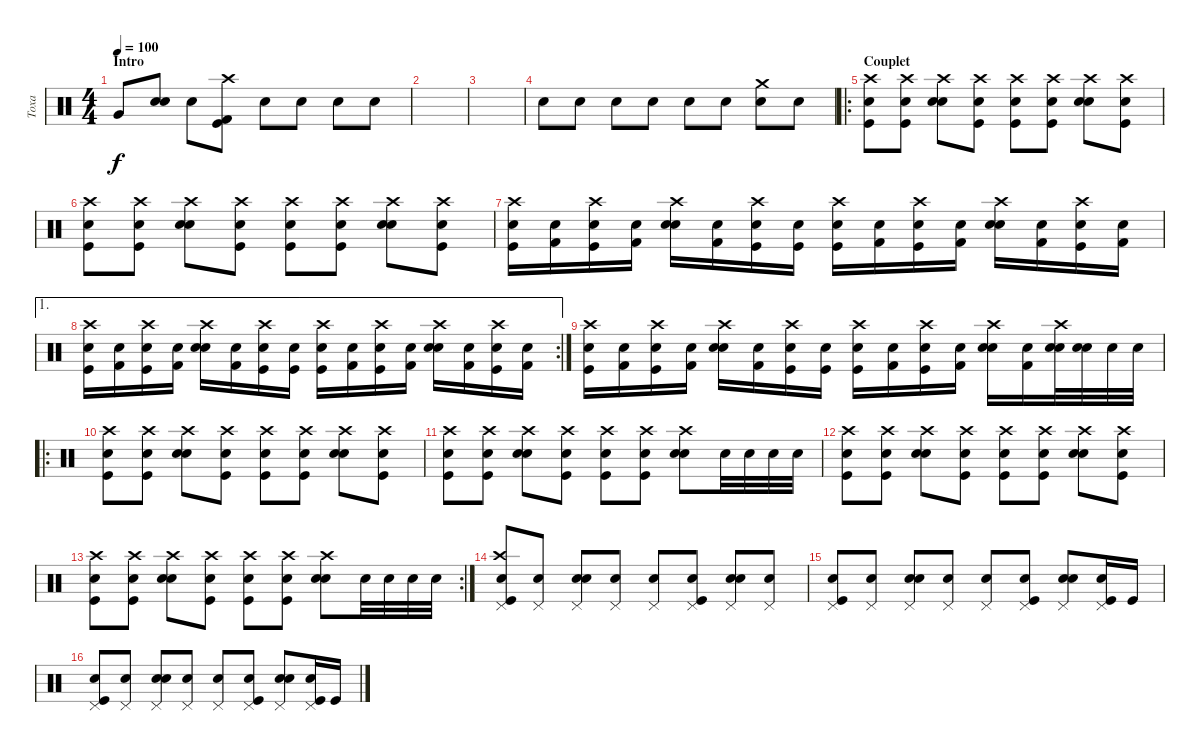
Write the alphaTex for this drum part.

\track ("Toxa" "Toxa") {instrument percussion}
\staff {score}
\articulation defaults
\ts (4 4)
\section ("" "Intro")
\tempo 100
\clef neutral
\ks c "Very Low Tom (hit)".8{dy f}
("Snare (hit) 2" "Electric Snare (hit)").8 "Snare (hit)"{x}.8 ("Kick (hit)" "Kick (hit) 2" "Crash high (hit)").8 "Snare (hit)"{x}.8 "Snare (hit)"{x}.8 "Snare (hit)"{x}.8 "Snare (hit)"{x}.8 |
|
|
"Snare (hit)"{x}.8 "Snare (hit)"{x}.8 "Snare (hit)"{x}.8 "Snare (hit)"{x}.8 "Snare (hit)"{x}.8 "Snare (hit)"{x}.8 ("Crash medium (hit)" "Snare (hit)"{x}).8 "Snare (hit)"{x}.8 |
\ro
\section ("" "Couplet ")
("Crash high (hit)" "Kick (hit)" "Snare (hit)"{x}).8 ("Crash high (hit)" "Kick (hit)" "Snare (hit)"{x}).8 ("Crash high (hit)" "Snare (hit) 2" "Snare (hit)"{x}).8 ("Crash high (hit)" "Kick (hit)" "Snare (hit)"{x}).8 ("Crash high (hit)" "Kick (hit)" "Snare (hit)"{x}).8 ("Crash high (hit)" "Kick (hit)" "Snare (hit)"{x}).8 ("Crash high (hit)" "Snare (hit) 2" "Snare (hit)"{x}).8 ("Crash high (hit)" "Kick (hit)" "Snare (hit)"{x}).8 |
("Crash high (hit)" "Kick (hit)" "Snare (hit)"{x}).8 ("Crash high (hit)" "Kick (hit)" "Snare (hit)"{x}).8 ("Crash high (hit)" "Snare (hit) 2" "Snare (hit)"{x}).8 ("Crash high (hit)" "Kick (hit)" "Snare (hit)"{x}).8 ("Crash high (hit)" "Kick (hit)" "Snare (hit)"{x}).8 ("Crash high (hit)" "Kick (hit)" "Snare (hit)"{x}).8 ("Crash high (hit)" "Snare (hit) 2" "Snare (hit)"{x}).8 ("Crash high (hit)" "Kick (hit)" "Snare (hit)"{x}).8 |
("Crash high (hit)" "Kick (hit)" "Snare (hit)"{x}).16 ("Kick (hit) 2" "Snare (hit)"{x}).16 ("Crash high (hit)" "Kick (hit)" "Snare (hit)"{x}).16 ("Kick (hit) 2" "Snare (hit)"{x}).16 ("Crash high (hit)" "Snare (hit) 2" "Snare (hit)"{x}).16 ("Kick (hit) 2" "Snare (hit)"{x}).16 ("Crash high (hit)" "Kick (hit)" "Snare (hit)"{x}).16 ("Kick (hit)" "Snare (hit)"{x}).16 ("Crash high (hit)" "Kick (hit)" "Snare (hit)"{x}).16 ("Kick (hit) 2" "Snare (hit)"{x}).16 ("Crash high (hit)" "Kick (hit)" "Snare (hit)"{x}).16 ("Kick (hit) 2" "Snare (hit)"{x}).16 ("Crash high (hit)" "Snare (hit) 2" "Snare (hit)"{x}).16 ("Kick (hit) 2" "Snare (hit)"{x}).16 ("Crash high (hit)" "Kick (hit)" "Snare (hit)"{x}).16 ("Kick (hit) 2" "Snare (hit)"{x}).16 |
\ae 1
\rc 2
("Crash high (hit)" "Kick (hit)" "Snare (hit)"{x}).16 ("Kick (hit) 2" "Snare (hit)"{x}).16 ("Crash high (hit)" "Kick (hit)" "Snare (hit)"{x}).16 ("Kick (hit) 2" "Snare (hit)"{x}).16 ("Crash high (hit)" "Snare (hit) 2" "Snare (hit)"{x}).16 ("Kick (hit) 2" "Snare (hit)"{x}).16 ("Crash high (hit)" "Kick (hit)" "Snare (hit)"{x}).16 ("Kick (hit)" "Snare (hit)"{x}).16 ("Crash high (hit)" "Kick (hit)" "Snare (hit)"{x}).16 ("Kick (hit) 2" "Snare (hit)"{x}).16 ("Crash high (hit)" "Kick (hit)" "Snare (hit)"{x}).16 ("Kick (hit) 2" "Snare (hit)"{x}).16 ("Crash high (hit)" "Snare (hit) 2" "Snare (hit)"{x}).16 ("Kick (hit) 2" "Snare (hit)"{x}).16 ("Crash high (hit)" "Kick (hit)" "Snare (hit)"{x}).16 ("Kick (hit) 2" "Snare (hit)"{x}).16 |
("Crash high (hit)" "Kick (hit)" "Snare (hit)"{x}).16 ("Kick (hit) 2" "Snare (hit)"{x}).16 ("Crash high (hit)" "Kick (hit)" "Snare (hit)"{x}).16 ("Kick (hit) 2" "Snare (hit)"{x}).16 ("Crash high (hit)" "Snare (hit) 2" "Snare (hit)"{x}).16 ("Kick (hit) 2" "Snare (hit)"{x}).16 ("Crash high (hit)" "Kick (hit)" "Snare (hit)"{x}).16 ("Kick (hit)" "Snare (hit)"{x}).16 ("Crash high (hit)" "Kick (hit)" "Snare (hit)"{x}).16 ("Kick (hit) 2" "Snare (hit)"{x}).16 ("Crash high (hit)" "Kick (hit)" "Snare (hit)"{x}).16 ("Kick (hit) 2" "Snare (hit)"{x}).16 ("Crash high (hit)" "Snare (hit) 2" "Snare (hit)"{x}).16 ("Kick (hit) 2" "Snare (hit)"{x}).16 ("Crash high (hit)" "Electric Snare (hit)" "Snare (hit)"{x}).32 ("Electric Snare (hit)" "Snare (hit)"{x}).32 "Electric Snare (hit)".32 "Electric Snare (hit)".32 |
\ro
("Crash high (hit)" "Kick (hit)" "Snare (hit)"{x}).8 ("Crash high (hit)" "Kick (hit)" "Snare (hit)"{x}).8 ("Crash high (hit)" "Snare (hit) 2" "Snare (hit)"{x}).8 ("Crash high (hit)" "Kick (hit)" "Snare (hit)"{x}).8 ("Crash high (hit)" "Kick (hit)" "Snare (hit)"{x}).8 ("Crash high (hit)" "Kick (hit)" "Snare (hit)"{x}).8 ("Crash high (hit)" "Snare (hit) 2" "Snare (hit)"{x}).8 ("Crash high (hit)" "Kick (hit)" "Snare (hit)"{x}).8 |
("Crash high (hit)" "Kick (hit)" "Snare (hit)"{x}).8 ("Crash high (hit)" "Kick (hit)" "Snare (hit)"{x}).8 ("Crash high (hit)" "Snare (hit) 2" "Snare (hit)"{x}).8 ("Crash high (hit)" "Kick (hit)" "Snare (hit)"{x}).8 ("Crash high (hit)" "Kick (hit)" "Snare (hit)"{x}).8 ("Crash high (hit)" "Kick (hit)" "Snare (hit)"{x}).8 ("Crash high (hit)" "Snare (hit) 2" "Snare (hit)"{x}).8 "Electric Snare (hit)".32 "Electric Snare (hit)".32 "Electric Snare (hit)".32 "Electric Snare (hit)".32 |
("Crash high (hit)" "Kick (hit)" "Snare (hit)"{x}).8 ("Crash high (hit)" "Kick (hit)" "Snare (hit)"{x}).8 ("Crash high (hit)" "Snare (hit) 2" "Snare (hit)"{x}).8 ("Crash high (hit)" "Kick (hit)" "Snare (hit)"{x}).8 ("Crash high (hit)" "Kick (hit)" "Snare (hit)"{x}).8 ("Crash high (hit)" "Kick (hit)" "Snare (hit)"{x}).8 ("Crash high (hit)" "Snare (hit) 2" "Snare (hit)"{x}).8 ("Crash high (hit)" "Kick (hit)" "Snare (hit)"{x}).8 |
\rc 2
("Crash high (hit)" "Kick (hit)" "Snare (hit)"{x}).8 ("Crash high (hit)" "Kick (hit)" "Snare (hit)"{x}).8 ("Crash high (hit)" "Snare (hit) 2" "Snare (hit)"{x}).8 ("Crash high (hit)" "Kick (hit)" "Snare (hit)"{x}).8 ("Crash high (hit)" "Kick (hit)" "Snare (hit)"{x}).8 ("Crash high (hit)" "Kick (hit)" "Snare (hit)"{x}).8 ("Crash high (hit)" "Snare (hit) 2" "Snare (hit)"{x}).8 "Electric Snare (hit)".32 "Electric Snare (hit)".32 "Electric Snare (hit)".32 "Electric Snare (hit)".32 |
("Crash high (hit)" "Pedal Hi-Hat (hit)" "Kick (hit)" "Snare (hit)"{x}).8 ("Pedal Hi-Hat (hit)" "Snare (hit)"{x}).8 ("Pedal Hi-Hat (hit)" "Snare (hit) 2" "Snare (hit)"{x}).8 ("Pedal Hi-Hat (hit)" "Snare (hit)"{x}).8 ("Pedal Hi-Hat (hit)" "Snare (hit)"{x}).8 ("Pedal Hi-Hat (hit)" "Kick (hit)" "Snare (hit)"{x}).8 ("Pedal Hi-Hat (hit)" "Snare (hit) 2" "Snare (hit)"{x}).8 ("Pedal Hi-Hat (hit)" "Snare (hit)"{x}).8 |
("Pedal Hi-Hat (hit)" "Kick (hit)" "Snare (hit)"{x}).8 ("Pedal Hi-Hat (hit)" "Snare (hit)"{x}).8 ("Pedal Hi-Hat (hit)" "Snare (hit) 2" "Snare (hit)"{x}).8 ("Pedal Hi-Hat (hit)" "Snare (hit)"{x}).8 ("Pedal Hi-Hat (hit)" "Snare (hit)"{x}).8 ("Pedal Hi-Hat (hit)" "Kick (hit)" "Snare (hit)"{x}).8 ("Pedal Hi-Hat (hit)" "Snare (hit) 2" "Snare (hit)"{x}).8 ("Pedal Hi-Hat (hit)" "Kick (hit)" "Snare (hit)"{x}).16 "Kick (hit)".16 |
("Pedal Hi-Hat (hit)" "Kick (hit)" "Snare (hit)"{x}).8 ("Pedal Hi-Hat (hit)" "Snare (hit)"{x}).8 ("Pedal Hi-Hat (hit)" "Snare (hit) 2" "Snare (hit)"{x}).8 ("Pedal Hi-Hat (hit)" "Snare (hit)"{x}).8 ("Pedal Hi-Hat (hit)" "Snare (hit)"{x}).8 ("Pedal Hi-Hat (hit)" "Kick (hit)" "Snare (hit)"{x}).8 ("Pedal Hi-Hat (hit)" "Snare (hit) 2" "Snare (hit)"{x}).8 ("Pedal Hi-Hat (hit)" "Kick (hit)" "Snare (hit)"{x}).16 "Kick (hit)".16
